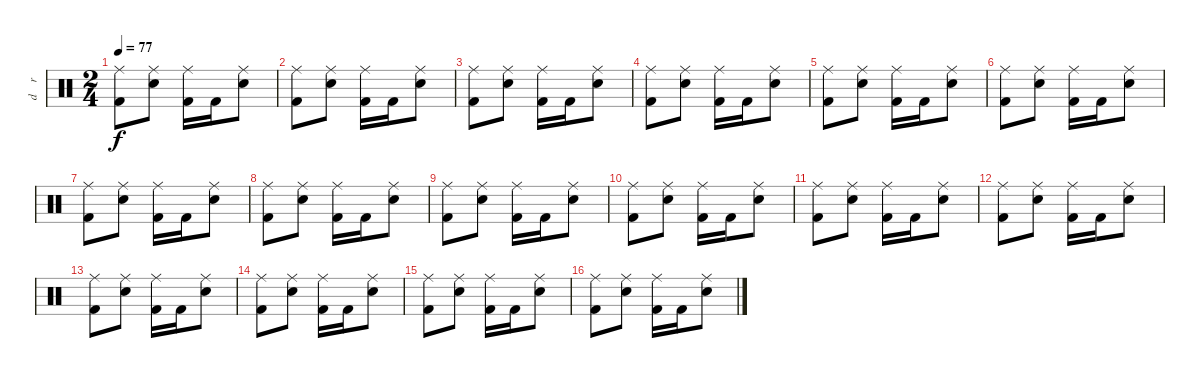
\track ("d    r     u    m    s" "d    r    ") {instrument percussion}
\staff {score}
\articulation defaults
\ts (2 4)
\tempo 77
\clef neutral
\ks c
("Ride (middle)" "Kick (hit) 2").8{dy f} ("Ride (middle)" "Electric Snare (hit)").8 ("Ride (middle)" "Kick (hit) 2").16 "Kick (hit) 2".16 ("Ride (middle)" "Electric Snare (hit)").8 |
("Ride (middle)" "Kick (hit) 2").8 ("Ride (middle)" "Electric Snare (hit)").8 ("Ride (middle)" "Kick (hit) 2").16 "Kick (hit) 2".16 ("Ride (middle)" "Electric Snare (hit)").8 |
("Ride (middle)" "Kick (hit) 2").8 ("Ride (middle)" "Electric Snare (hit)").8 ("Ride (middle)" "Kick (hit) 2").16 "Kick (hit) 2".16 ("Ride (middle)" "Electric Snare (hit)").8 |
("Ride (middle)" "Kick (hit) 2").8 ("Ride (middle)" "Electric Snare (hit)").8 ("Ride (middle)" "Kick (hit) 2").16 "Kick (hit) 2".16 ("Ride (middle)" "Electric Snare (hit)").8 |
("Ride (middle)" "Kick (hit) 2").8 ("Ride (middle)" "Electric Snare (hit)").8 ("Ride (middle)" "Kick (hit) 2").16 "Kick (hit) 2".16 ("Ride (middle)" "Electric Snare (hit)").8 |
("Ride (middle)" "Kick (hit) 2").8 ("Ride (middle)" "Electric Snare (hit)").8 ("Ride (middle)" "Kick (hit) 2").16 "Kick (hit) 2".16 ("Ride (middle)" "Electric Snare (hit)").8 |
("Ride (middle)" "Kick (hit) 2").8 ("Ride (middle)" "Electric Snare (hit)").8 ("Ride (middle)" "Kick (hit) 2").16 "Kick (hit) 2".16 ("Ride (middle)" "Electric Snare (hit)").8 |
("Ride (middle)" "Kick (hit) 2").8 ("Ride (middle)" "Electric Snare (hit)").8 ("Ride (middle)" "Kick (hit) 2").16 "Kick (hit) 2".16 ("Ride (middle)" "Electric Snare (hit)").8 |
("Ride (middle)" "Kick (hit) 2").8 ("Ride (middle)" "Electric Snare (hit)").8 ("Ride (middle)" "Kick (hit) 2").16 "Kick (hit) 2".16 ("Ride (middle)" "Electric Snare (hit)").8 |
("Ride (middle)" "Kick (hit) 2").8 ("Ride (middle)" "Electric Snare (hit)").8 ("Ride (middle)" "Kick (hit) 2").16 "Kick (hit) 2".16 ("Ride (middle)" "Electric Snare (hit)").8 |
("Ride (middle)" "Kick (hit) 2").8 ("Ride (middle)" "Electric Snare (hit)").8 ("Ride (middle)" "Kick (hit) 2").16 "Kick (hit) 2".16 ("Ride (middle)" "Electric Snare (hit)").8 |
("Ride (middle)" "Kick (hit) 2").8 ("Ride (middle)" "Electric Snare (hit)").8 ("Ride (middle)" "Kick (hit) 2").16 "Kick (hit) 2".16 ("Ride (middle)" "Electric Snare (hit)").8 |
("Ride (middle)" "Kick (hit) 2").8 ("Ride (middle)" "Electric Snare (hit)").8 ("Ride (middle)" "Kick (hit) 2").16 "Kick (hit) 2".16 ("Ride (middle)" "Electric Snare (hit)").8 |
("Ride (middle)" "Kick (hit) 2").8 ("Ride (middle)" "Electric Snare (hit)").8 ("Ride (middle)" "Kick (hit) 2").16 "Kick (hit) 2".16 ("Ride (middle)" "Electric Snare (hit)").8 |
("Ride (middle)" "Kick (hit) 2").8 ("Ride (middle)" "Electric Snare (hit)").8 ("Ride (middle)" "Kick (hit) 2").16 "Kick (hit) 2".16 ("Ride (middle)" "Electric Snare (hit)").8 |
("Ride (middle)" "Kick (hit) 2").8 ("Ride (middle)" "Electric Snare (hit)").8 ("Ride (middle)" "Kick (hit) 2").16 "Kick (hit) 2".16 ("Ride (middle)" "Electric Snare (hit)").8
